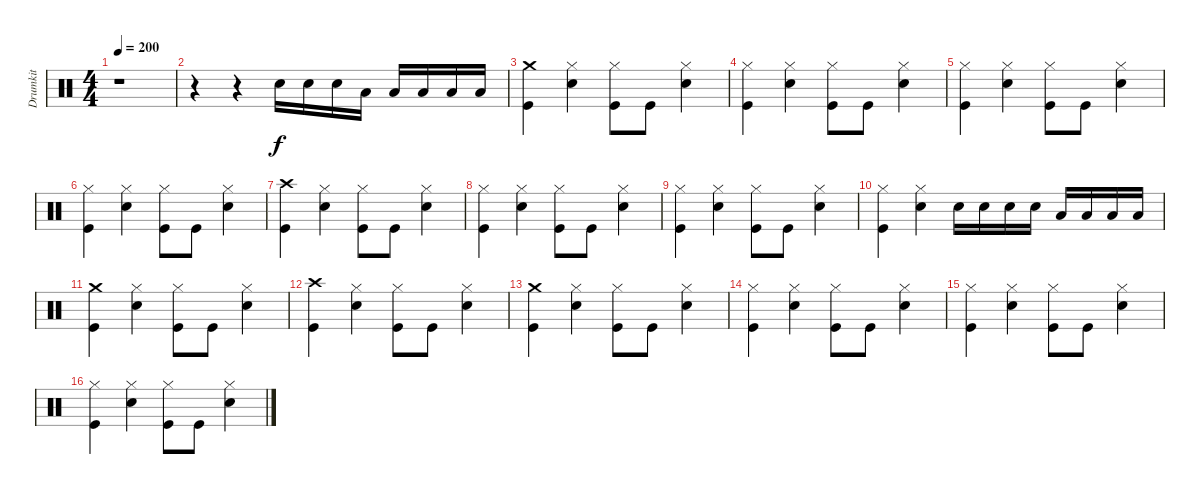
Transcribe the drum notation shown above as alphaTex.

\track ("Drumkit" "Drumkit") {instrument percussion}
\staff {score}
\articulation defaults
\ts (4 4)
\tempo 200
\clef neutral
\ks c
r.1{dy f} |
r.4 r.4 "Snare (hit) 2".16 "Snare (hit) 2".16 "Snare (hit) 2".16 "Low Floor Tom (hit)".16 "Low Floor Tom (hit)".16 "Low Floor Tom (hit)".16 "Low Tom (hit)".16 "Low Tom (hit)".16 |
("Crash medium (hit)" "Kick (hit)").4 ("Hi-Hat (closed)" "Snare (hit) 2").4 ("Hi-Hat (closed)" "Kick (hit)").8 "Kick (hit)".8 ("Hi-Hat (closed)" "Snare (hit) 2").4 |
("Hi-Hat (closed)" "Kick (hit)").4 ("Hi-Hat (closed)" "Snare (hit) 2").4 ("Hi-Hat (closed)" "Kick (hit)").8 "Kick (hit)".8 ("Hi-Hat (closed)" "Snare (hit) 2").4 |
("Hi-Hat (closed)" "Kick (hit)").4 ("Hi-Hat (closed)" "Snare (hit) 2").4 ("Hi-Hat (closed)" "Kick (hit)").8 "Kick (hit)".8 ("Hi-Hat (closed)" "Snare (hit) 2").4 |
("Hi-Hat (closed)" "Kick (hit)").4 ("Hi-Hat (closed)" "Snare (hit) 2").4 ("Hi-Hat (closed)" "Kick (hit)").8 "Kick (hit)".8 ("Hi-Hat (closed)" "Snare (hit) 2").4 |
("Crash high (hit)" "Kick (hit)").4 ("Hi-Hat (closed)" "Snare (hit) 2").4 ("Hi-Hat (closed)" "Kick (hit)").8 "Kick (hit)".8 ("Hi-Hat (closed)" "Snare (hit) 2").4 |
("Hi-Hat (closed)" "Kick (hit)").4 ("Hi-Hat (closed)" "Snare (hit) 2").4 ("Hi-Hat (closed)" "Kick (hit)").8 "Kick (hit)".8 ("Hi-Hat (closed)" "Snare (hit) 2").4 |
("Hi-Hat (closed)" "Kick (hit)").4 ("Hi-Hat (closed)" "Snare (hit) 2").4 ("Hi-Hat (closed)" "Kick (hit)").8 "Kick (hit)".8 ("Hi-Hat (closed)" "Snare (hit) 2").4 |
("Hi-Hat (closed)" "Kick (hit)").4 ("Hi-Hat (closed)" "Snare (hit) 2").4 "Snare (hit) 2".16 "Snare (hit) 2".16 "Snare (hit) 2".16 "Snare (hit) 2".16 "Low Floor Tom (hit)".16 "Low Floor Tom (hit)".16 "Low Tom (hit)".16 "Low Tom (hit)".16 |
("Crash medium (hit)" "Kick (hit)").4 ("Hi-Hat (closed)" "Snare (hit) 2").4 ("Hi-Hat (closed)" "Kick (hit)").8 "Kick (hit)".8 ("Hi-Hat (closed)" "Snare (hit) 2").4 |
("Crash high (hit)" "Kick (hit)").4 ("Hi-Hat (closed)" "Snare (hit) 2").4 ("Hi-Hat (closed)" "Kick (hit)").8 "Kick (hit)".8 ("Hi-Hat (closed)" "Snare (hit) 2").4 |
("Crash medium (hit)" "Kick (hit)").4 ("Hi-Hat (closed)" "Snare (hit) 2").4 ("Hi-Hat (closed)" "Kick (hit)").8 "Kick (hit)".8 ("Hi-Hat (closed)" "Snare (hit) 2").4 |
("Hi-Hat (closed)" "Kick (hit)").4 ("Hi-Hat (closed)" "Snare (hit) 2").4 ("Hi-Hat (closed)" "Kick (hit)").8 "Kick (hit)".8 ("Hi-Hat (closed)" "Snare (hit) 2").4 |
("Hi-Hat (closed)" "Kick (hit)").4 ("Hi-Hat (closed)" "Snare (hit) 2").4 ("Hi-Hat (closed)" "Kick (hit)").8 "Kick (hit)".8 ("Hi-Hat (closed)" "Snare (hit) 2").4 |
("Hi-Hat (closed)" "Kick (hit)").4 ("Hi-Hat (closed)" "Snare (hit) 2").4 ("Hi-Hat (closed)" "Kick (hit)").8 "Kick (hit)".8 ("Hi-Hat (closed)" "Snare (hit) 2").4
